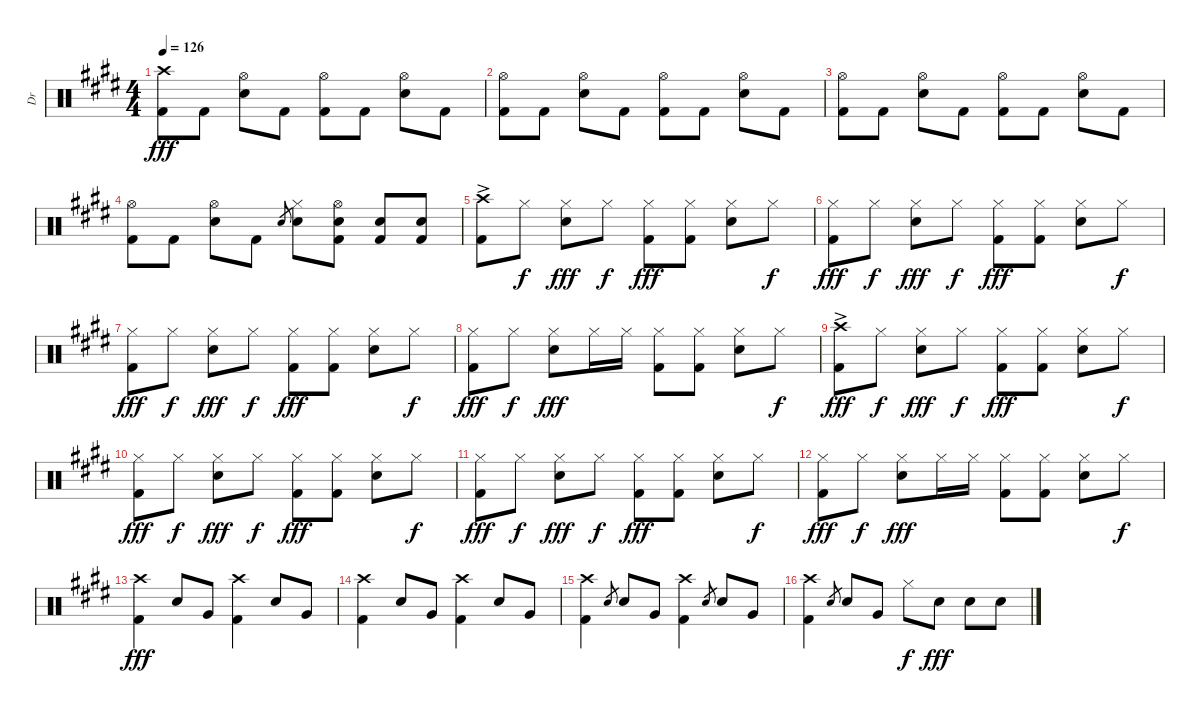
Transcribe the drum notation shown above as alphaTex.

\track ("Dr" "Dr") {instrument percussion}
\staff {score}
\articulation defaults
\ts (4 4)
\tempo 126
\clef neutral
\ks e
("Crash high (hit)" "Kick (hit) 2").8{dy fff} "Kick (hit) 2".8 ("Hi-Hat (open)" "Electric Snare (hit)").8 "Kick (hit) 2".8 ("Hi-Hat (open)" "Kick (hit) 2").8 "Kick (hit) 2".8 ("Hi-Hat (open)" "Electric Snare (hit)").8 "Kick (hit) 2".8 |
("Hi-Hat (open)" "Kick (hit) 2").8 "Kick (hit) 2".8 ("Hi-Hat (open)" "Electric Snare (hit)").8 "Kick (hit) 2".8 ("Hi-Hat (open)" "Kick (hit) 2").8 "Kick (hit) 2".8 ("Hi-Hat (open)" "Electric Snare (hit)").8 "Kick (hit) 2".8 |
("Hi-Hat (open)" "Kick (hit) 2").8 "Kick (hit) 2".8 ("Hi-Hat (open)" "Electric Snare (hit)").8 "Kick (hit) 2".8 ("Hi-Hat (open)" "Kick (hit) 2").8 "Kick (hit) 2".8 ("Hi-Hat (open)" "Electric Snare (hit)").8 "Kick (hit) 2".8 |
("Hi-Hat (open)" "Kick (hit) 2").8 "Kick (hit) 2".8 ("Hi-Hat (open)" "Electric Snare (hit)").8 "Kick (hit) 2".8 "Electric Snare (hit)".8{gr} ("Hi-Hat (closed)" "Electric Snare (hit)").8 ("Hi-Hat (open)" "Electric Snare (hit)" "Kick (hit) 2").8 ("Electric Snare (hit)" "Kick (hit) 2").8 ("Electric Snare (hit)" "Kick (hit) 2").8 |
("Crash high (hit)" "Kick (hit) 2"{ac}).8 "Hi-Hat (closed)".8{dy f} ("Hi-Hat (closed)" "Electric Snare (hit)").8{dy fff} "Hi-Hat (closed)".8{dy f} ("Hi-Hat (closed)" "Kick (hit) 2").8{dy fff} ("Hi-Hat (closed)" "Kick (hit) 2").8 ("Hi-Hat (closed)" "Electric Snare (hit)").8 "Hi-Hat (closed)".8{dy f} |
("Hi-Hat (closed)" "Kick (hit) 2").8{dy fff} "Hi-Hat (closed)".8{dy f} ("Hi-Hat (closed)" "Electric Snare (hit)").8{dy fff} "Hi-Hat (closed)".8{dy f} ("Hi-Hat (closed)" "Kick (hit) 2").8{dy fff} ("Hi-Hat (closed)" "Kick (hit) 2").8 ("Hi-Hat (closed)" "Electric Snare (hit)").8 "Hi-Hat (closed)".8{dy f} |
("Hi-Hat (closed)" "Kick (hit) 2").8{dy fff} "Hi-Hat (closed)".8{dy f} ("Hi-Hat (closed)" "Electric Snare (hit)").8{dy fff} "Hi-Hat (closed)".8{dy f} ("Hi-Hat (closed)" "Kick (hit) 2").8{dy fff} ("Hi-Hat (closed)" "Kick (hit) 2").8 ("Hi-Hat (closed)" "Electric Snare (hit)").8 "Hi-Hat (closed)".8{dy f} |
("Hi-Hat (closed)" "Kick (hit) 2").8{dy fff} "Hi-Hat (closed)".8{dy f} ("Hi-Hat (closed)" "Electric Snare (hit)").8{dy fff} "Hi-Hat (closed)".16 "Hi-Hat (closed)".16 ("Hi-Hat (closed)" "Kick (hit) 2").8 ("Hi-Hat (closed)" "Kick (hit) 2").8 ("Hi-Hat (closed)" "Electric Snare (hit)").8 "Hi-Hat (closed)".8{dy f} |
("Crash high (hit)" "Kick (hit) 2"{ac}).8{dy fff} "Hi-Hat (closed)".8{dy f} ("Hi-Hat (closed)" "Electric Snare (hit)").8{dy fff} "Hi-Hat (closed)".8{dy f} ("Hi-Hat (closed)" "Kick (hit) 2").8{dy fff} ("Hi-Hat (closed)" "Kick (hit) 2").8 ("Hi-Hat (closed)" "Electric Snare (hit)").8 "Hi-Hat (closed)".8{dy f} |
("Hi-Hat (closed)" "Kick (hit) 2").8{dy fff} "Hi-Hat (closed)".8{dy f} ("Hi-Hat (closed)" "Electric Snare (hit)").8{dy fff} "Hi-Hat (closed)".8{dy f} ("Hi-Hat (closed)" "Kick (hit) 2").8{dy fff} ("Hi-Hat (closed)" "Kick (hit) 2").8 ("Hi-Hat (closed)" "Electric Snare (hit)").8 "Hi-Hat (closed)".8{dy f} |
("Hi-Hat (closed)" "Kick (hit) 2").8{dy fff} "Hi-Hat (closed)".8{dy f} ("Hi-Hat (closed)" "Electric Snare (hit)").8{dy fff} "Hi-Hat (closed)".8{dy f} ("Hi-Hat (closed)" "Kick (hit) 2").8{dy fff} ("Hi-Hat (closed)" "Kick (hit) 2").8 ("Hi-Hat (closed)" "Electric Snare (hit)").8 "Hi-Hat (closed)".8{dy f} |
("Hi-Hat (closed)" "Kick (hit) 2").8{dy fff} "Hi-Hat (closed)".8{dy f} ("Hi-Hat (closed)" "Electric Snare (hit)").8{dy fff} "Hi-Hat (closed)".16 "Hi-Hat (closed)".16 ("Hi-Hat (closed)" "Kick (hit) 2").8 ("Hi-Hat (closed)" "Kick (hit) 2").8 ("Hi-Hat (closed)" "Electric Snare (hit)").8 "Hi-Hat (closed)".8{dy f} |
("Crash high (hit)" "Kick (hit) 2").4{dy fff} "Electric Snare (hit)".8 "Very Low Tom (hit)".8 ("Crash high (hit)" "Kick (hit) 2").4 "Electric Snare (hit)".8 "Very Low Tom (hit)".8 |
("Crash high (hit)" "Kick (hit) 2").4 "Electric Snare (hit)".8 "Very Low Tom (hit)".8 ("Crash high (hit)" "Kick (hit) 2").4 "Electric Snare (hit)".8 "Very Low Tom (hit)".8 |
("Crash high (hit)" "Kick (hit) 2").4 "Electric Snare (hit)".8{gr} "Electric Snare (hit)".8 "Very Low Tom (hit)".8 ("Crash high (hit)" "Kick (hit) 2").4 "Electric Snare (hit)".8{gr} "Electric Snare (hit)".8 "Very Low Tom (hit)".8 |
("Crash high (hit)" "Kick (hit) 2").4 "Electric Snare (hit)".8{gr} "Electric Snare (hit)".8 "Very Low Tom (hit)".8 "Hi-Hat (closed)".8{dy f} "Electric Snare (hit)".8{dy fff} "Electric Snare (hit)".8 "Electric Snare (hit)".8
